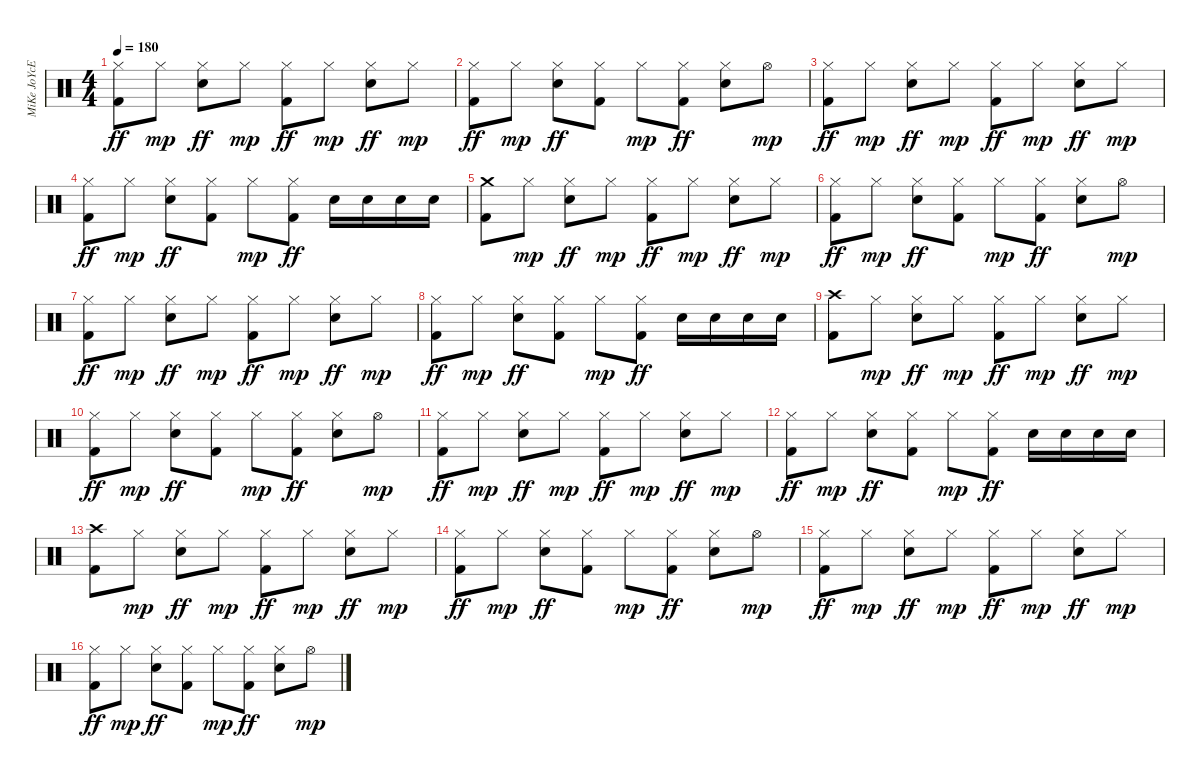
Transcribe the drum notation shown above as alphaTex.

\track ("MiKe JoYcE" "MiKe JoYcE") {instrument percussion}
\staff {score}
\articulation defaults
\ts (4 4)
\tempo 180
\clef neutral
\ks c
("Hi-Hat (closed)" "Kick (hit) 2").8{dy ff} "Hi-Hat (closed)".8{dy mp} ("Hi-Hat (closed)" "Electric Snare (hit)").8{dy ff} "Hi-Hat (closed)".8{dy mp} ("Hi-Hat (closed)" "Kick (hit) 2").8{dy ff} "Hi-Hat (closed)".8{dy mp} ("Hi-Hat (closed)" "Electric Snare (hit)").8{dy ff} "Hi-Hat (closed)".8{dy mp} |
("Hi-Hat (closed)" "Kick (hit) 2").8{dy ff} "Hi-Hat (closed)".8{dy mp} ("Hi-Hat (closed)" "Electric Snare (hit)").8{dy ff} ("Hi-Hat (closed)" "Kick (hit) 2").8 "Hi-Hat (closed)".8{dy mp} ("Hi-Hat (closed)" "Kick (hit) 2").8{dy ff} ("Hi-Hat (closed)" "Electric Snare (hit)").8 "Hi-Hat (open)".8{dy mp} |
("Hi-Hat (closed)" "Kick (hit) 2").8{dy ff} "Hi-Hat (closed)".8{dy mp} ("Hi-Hat (closed)" "Electric Snare (hit)").8{dy ff} "Hi-Hat (closed)".8{dy mp} ("Hi-Hat (closed)" "Kick (hit) 2").8{dy ff} "Hi-Hat (closed)".8{dy mp} ("Hi-Hat (closed)" "Electric Snare (hit)").8{dy ff} "Hi-Hat (closed)".8{dy mp} |
("Hi-Hat (closed)" "Kick (hit) 2").8{dy ff} "Hi-Hat (closed)".8{dy mp} ("Hi-Hat (closed)" "Electric Snare (hit)").8{dy ff} ("Hi-Hat (closed)" "Kick (hit) 2").8 "Hi-Hat (closed)".8{dy mp} ("Hi-Hat (closed)" "Kick (hit) 2").8{dy ff} "Electric Snare (hit)".16 "Electric Snare (hit)".16 "Electric Snare (hit)".16 "Electric Snare (hit)".16 |
("Crash medium (hit)" "Kick (hit) 2").8 "Hi-Hat (closed)".8{dy mp} ("Hi-Hat (closed)" "Electric Snare (hit)").8{dy ff} "Hi-Hat (closed)".8{dy mp} ("Hi-Hat (closed)" "Kick (hit) 2").8{dy ff} "Hi-Hat (closed)".8{dy mp} ("Hi-Hat (closed)" "Electric Snare (hit)").8{dy ff} "Hi-Hat (closed)".8{dy mp} |
("Hi-Hat (closed)" "Kick (hit) 2").8{dy ff} "Hi-Hat (closed)".8{dy mp} ("Hi-Hat (closed)" "Electric Snare (hit)").8{dy ff} ("Hi-Hat (closed)" "Kick (hit) 2").8 "Hi-Hat (closed)".8{dy mp} ("Hi-Hat (closed)" "Kick (hit) 2").8{dy ff} ("Hi-Hat (closed)" "Electric Snare (hit)").8 "Hi-Hat (open)".8{dy mp} |
("Hi-Hat (closed)" "Kick (hit) 2").8{dy ff} "Hi-Hat (closed)".8{dy mp} ("Hi-Hat (closed)" "Electric Snare (hit)").8{dy ff} "Hi-Hat (closed)".8{dy mp} ("Hi-Hat (closed)" "Kick (hit) 2").8{dy ff} "Hi-Hat (closed)".8{dy mp} ("Hi-Hat (closed)" "Electric Snare (hit)").8{dy ff} "Hi-Hat (closed)".8{dy mp} |
("Hi-Hat (closed)" "Kick (hit) 2").8{dy ff} "Hi-Hat (closed)".8{dy mp} ("Hi-Hat (closed)" "Electric Snare (hit)").8{dy ff} ("Hi-Hat (closed)" "Kick (hit) 2").8 "Hi-Hat (closed)".8{dy mp} ("Hi-Hat (closed)" "Kick (hit) 2").8{dy ff} "Electric Snare (hit)".16 "Electric Snare (hit)".16 "Electric Snare (hit)".16 "Electric Snare (hit)".16 |
("Crash high (hit)" "Kick (hit) 2").8 "Hi-Hat (closed)".8{dy mp} ("Hi-Hat (closed)" "Electric Snare (hit)").8{dy ff} "Hi-Hat (closed)".8{dy mp} ("Hi-Hat (closed)" "Kick (hit) 2").8{dy ff} "Hi-Hat (closed)".8{dy mp} ("Hi-Hat (closed)" "Electric Snare (hit)").8{dy ff} "Hi-Hat (closed)".8{dy mp} |
("Hi-Hat (closed)" "Kick (hit) 2").8{dy ff} "Hi-Hat (closed)".8{dy mp} ("Hi-Hat (closed)" "Electric Snare (hit)").8{dy ff} ("Hi-Hat (closed)" "Kick (hit) 2").8 "Hi-Hat (closed)".8{dy mp} ("Hi-Hat (closed)" "Kick (hit) 2").8{dy ff} ("Hi-Hat (closed)" "Electric Snare (hit)").8 "Hi-Hat (open)".8{dy mp} |
("Hi-Hat (closed)" "Kick (hit) 2").8{dy ff} "Hi-Hat (closed)".8{dy mp} ("Hi-Hat (closed)" "Electric Snare (hit)").8{dy ff} "Hi-Hat (closed)".8{dy mp} ("Hi-Hat (closed)" "Kick (hit) 2").8{dy ff} "Hi-Hat (closed)".8{dy mp} ("Hi-Hat (closed)" "Electric Snare (hit)").8{dy ff} "Hi-Hat (closed)".8{dy mp} |
("Hi-Hat (closed)" "Kick (hit) 2").8{dy ff} "Hi-Hat (closed)".8{dy mp} ("Hi-Hat (closed)" "Electric Snare (hit)").8{dy ff} ("Hi-Hat (closed)" "Kick (hit) 2").8 "Hi-Hat (closed)".8{dy mp} ("Hi-Hat (closed)" "Kick (hit) 2").8{dy ff} "Electric Snare (hit)".16 "Electric Snare (hit)".16 "Electric Snare (hit)".16 "Electric Snare (hit)".16 |
("Crash high (hit)" "Kick (hit) 2").8 "Hi-Hat (closed)".8{dy mp} ("Hi-Hat (closed)" "Electric Snare (hit)").8{dy ff} "Hi-Hat (closed)".8{dy mp} ("Hi-Hat (closed)" "Kick (hit) 2").8{dy ff} "Hi-Hat (closed)".8{dy mp} ("Hi-Hat (closed)" "Electric Snare (hit)").8{dy ff} "Hi-Hat (closed)".8{dy mp} |
("Hi-Hat (closed)" "Kick (hit) 2").8{dy ff} "Hi-Hat (closed)".8{dy mp} ("Hi-Hat (closed)" "Electric Snare (hit)").8{dy ff} ("Hi-Hat (closed)" "Kick (hit) 2").8 "Hi-Hat (closed)".8{dy mp} ("Hi-Hat (closed)" "Kick (hit) 2").8{dy ff} ("Hi-Hat (closed)" "Electric Snare (hit)").8 "Hi-Hat (open)".8{dy mp} |
("Hi-Hat (closed)" "Kick (hit) 2").8{dy ff} "Hi-Hat (closed)".8{dy mp} ("Hi-Hat (closed)" "Electric Snare (hit)").8{dy ff} "Hi-Hat (closed)".8{dy mp} ("Hi-Hat (closed)" "Kick (hit) 2").8{dy ff} "Hi-Hat (closed)".8{dy mp} ("Hi-Hat (closed)" "Electric Snare (hit)").8{dy ff} "Hi-Hat (closed)".8{dy mp} |
("Hi-Hat (closed)" "Kick (hit) 2").8{dy ff} "Hi-Hat (closed)".8{dy mp} ("Hi-Hat (closed)" "Electric Snare (hit)").8{dy ff} ("Hi-Hat (closed)" "Kick (hit) 2").8 "Hi-Hat (closed)".8{dy mp} ("Hi-Hat (closed)" "Kick (hit) 2").8{dy ff} ("Hi-Hat (closed)" "Electric Snare (hit)").8 "Hi-Hat (open)".8{dy mp}
